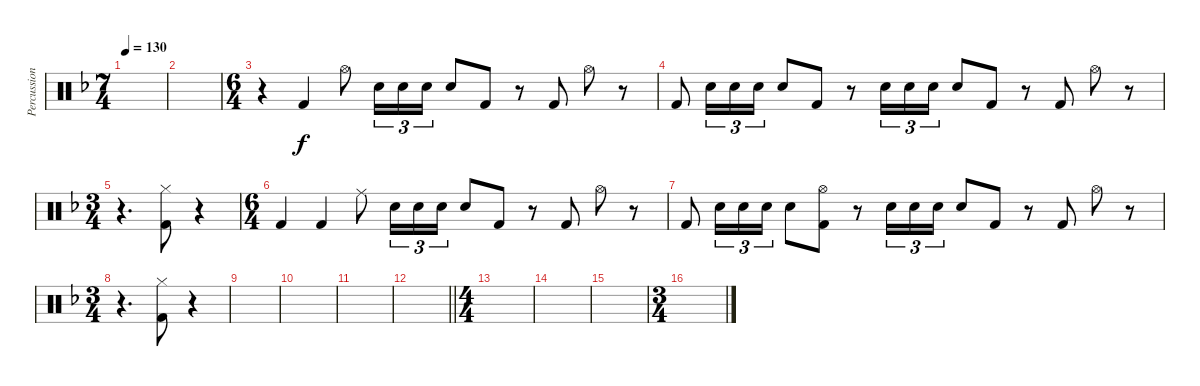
\track ("Percussions" "Percussion") {instrument percussion}
\staff {score}
\articulation defaults
\ts (7 4)
\tempo 130
\clef neutral
\ks dminor
|
|
\ts (6 4)
r.4 "Kick (hit) 2".4 "Hi-Hat (open)".8 "Snare (hit) 2".16{tu (3 2)} "Snare (hit) 2".16{tu (3 2)} "Snare (hit) 2".16{tu (3 2)} "Snare (hit) 2".8 "Kick (hit) 2".8 r.8 "Kick (hit) 2".8 "Hi-Hat (open)".8 r.8 |
"Kick (hit) 2".8 "Snare (hit) 2".16{tu (3 2)} "Snare (hit) 2".16{tu (3 2)} "Snare (hit) 2".16{tu (3 2)} "Snare (hit) 2".8 "Kick (hit) 2".8 r.8 "Snare (hit) 2".16{tu (3 2)} "Snare (hit) 2".16{tu (3 2)} "Snare (hit) 2".16{tu (3 2)} "Snare (hit) 2".8 "Kick (hit) 2".8 r.8 "Kick (hit) 2".8 "Hi-Hat (open)".8 r.8 |
\ts (3 4)
r.4{d} ("Hi-Hat (closed)" "Kick (hit) 2").8 r.4 |
\ts (6 4)
"Kick (hit) 2".4 "Kick (hit) 2".4 "Ride (middle)".8 "Snare (hit) 2".16{tu (3 2)} "Snare (hit) 2".16{tu (3 2)} "Snare (hit) 2".16{tu (3 2)} "Snare (hit) 2".8 "Kick (hit) 2".8 r.8 "Kick (hit) 2".8 "Hi-Hat (open)".8 r.8 |
"Kick (hit) 2".8 "Snare (hit) 2".16{tu (3 2)} "Snare (hit) 2".16{tu (3 2)} "Snare (hit) 2".16{tu (3 2)} "Snare (hit) 2".8 ("Hi-Hat (open)" "Kick (hit) 2").8 r.8 "Snare (hit) 2".16{tu (3 2)} "Snare (hit) 2".16{tu (3 2)} "Snare (hit) 2".16{tu (3 2)} "Snare (hit) 2".8 "Kick (hit) 2".8 r.8 "Kick (hit) 2".8 "Hi-Hat (open)".8 r.8 |
\ts (3 4)
r.4{d} ("Hi-Hat (closed)" "Kick (hit) 2").8 r.4 |
|
|
|
\barLineRight lightlight
|
\ts (4 4)
|
|
|
\ts (3 4)
